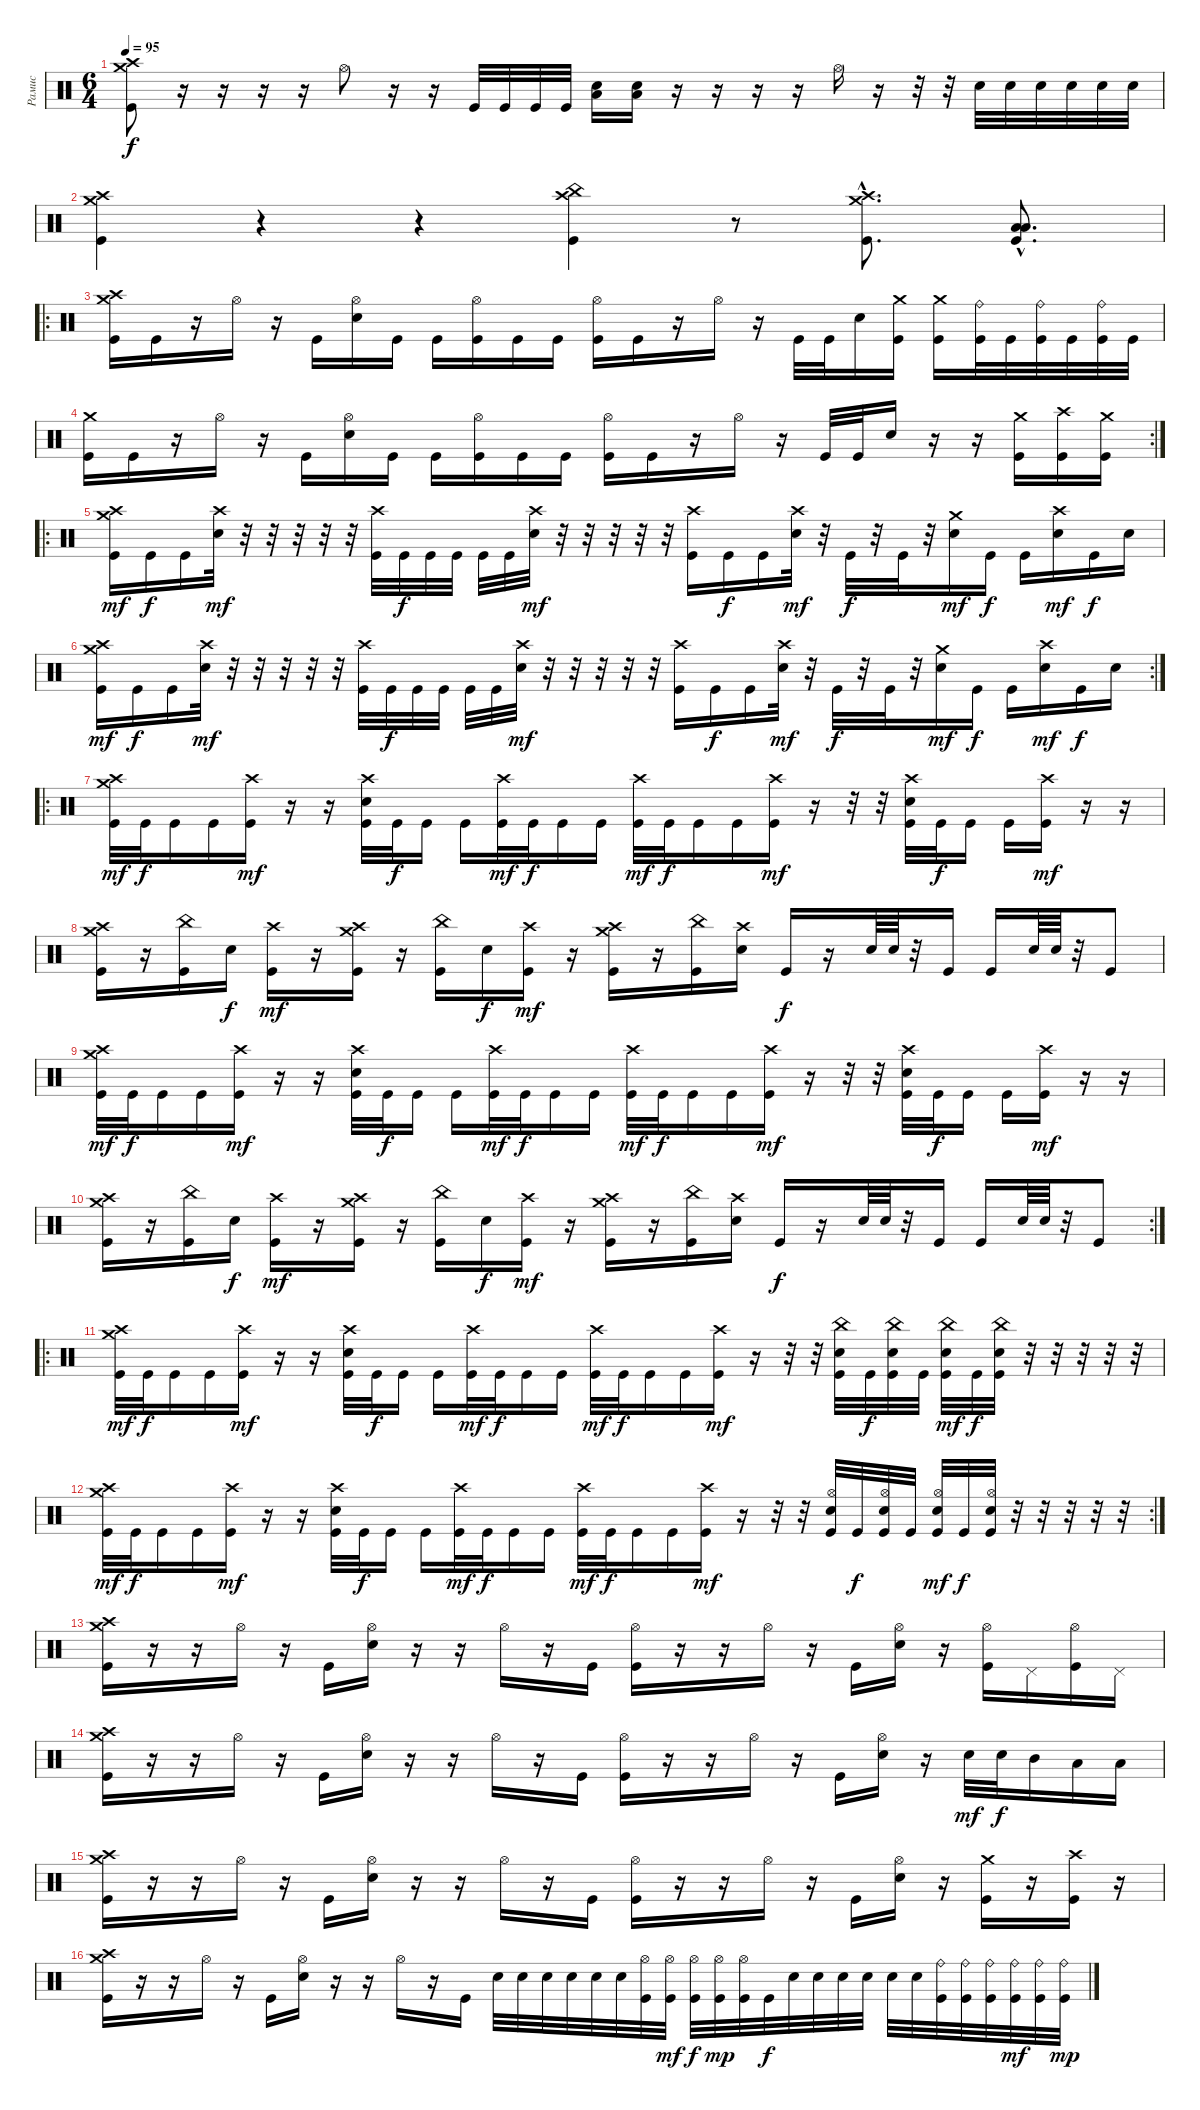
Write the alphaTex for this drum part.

\track ("Рамис" "Рамис") {instrument percussion}
\staff {score}
\articulation defaults
\ts (6 4)
\tempo 95
\clef neutral
\ks c
("Crash medium (hit)" "Crash high (hit)" "Kick (hit)").8{dy f} r.16 r.16 r.16 r.16 "Hi-Hat (open)".8 r.16 r.16 "Kick (hit)".32 "Kick (hit)".32 "Kick (hit)".32 "Kick (hit)".32 ("Electric Snare (hit)" "Low Floor Tom (hit)").16 ("Electric Snare (hit)" "Low Floor Tom (hit)").16 r.16 r.16 r.16 r.16 "Hi-Hat (open)".16 r.16 r.32 r.32 "Electric Snare (hit)".32 "Electric Snare (hit)".32 "Electric Snare (hit)".32 "Electric Snare (hit)".32 "Electric Snare (hit)".32 "Electric Snare (hit)".32 |
("Crash medium (hit)" "Crash high (hit)" "Kick (hit)").4 r.4 r.4 ("China (hit)" "Crash high (hit)" "Kick (hit)").4 r.8 ("Crash high (hit)"{hac} "Crash medium (hit)"{hac} "Kick (hit)"{hac}).8{d} ("Low Tom (hit)"{hac} "Low Floor Tom (hit)"{hac} "Kick (hit)"{hac}).8{d} |
\ro
("Crash high (hit)" "Crash medium (hit)" "Kick (hit)").16 "Kick (hit)".16 r.16 "Hi-Hat (open)".16 r.16 "Kick (hit)".16 ("Hi-Hat (open)" "Electric Snare (hit)").16 "Kick (hit)".16 "Kick (hit)".16 ("Hi-Hat (open)" "Kick (hit)").16 "Kick (hit)".16 "Kick (hit)".16 ("Hi-Hat (open)" "Kick (hit)").16 "Kick (hit)".16 r.16 "Hi-Hat (open)".16 r.16 "Kick (hit)".32 "Kick (hit)".32 "Electric Snare (hit)".16 ("Crash medium (hit)" "Kick (hit)").16 ("Crash medium (hit)" "Kick (hit)").16 ("Ride (bell)" "Kick (hit)").32 "Kick (hit)".32 ("Ride (bell)" "Kick (hit)").32 "Kick (hit)".32 ("Ride (bell)" "Kick (hit)").32 "Kick (hit)".32 |
\rc 2
("Crash medium (hit)" "Kick (hit)").16 "Kick (hit)".16 r.16 "Hi-Hat (open)".16 r.16 "Kick (hit)".16 ("Hi-Hat (open)" "Electric Snare (hit)").16 "Kick (hit)".16 "Kick (hit)".16 ("Hi-Hat (open)" "Kick (hit)").16 "Kick (hit)".16 "Kick (hit)".16 ("Hi-Hat (open)" "Kick (hit)").16 "Kick (hit)".16 r.16 "Hi-Hat (open)".16 r.16 "Kick (hit)".32 "Kick (hit)".32 "Electric Snare (hit)".16 r.16 r.16 ("Crash medium (hit)" "Kick (hit)").16 ("Crash high (hit)" "Kick (hit)").16 ("Crash medium (hit)" "Kick (hit)").16 |
\ro
("Crash high (hit)" "Crash medium (hit)" "Kick (hit)").16{dy mf} "Kick (hit)".16{dy f} "Kick (hit)".16 ("Crash high (hit)" "Electric Snare (hit)").32{dy mf} r.32 r.32 r.32 r.32 r.32 ("Crash high (hit)" "Kick (hit)").32 "Kick (hit)".32{dy f} "Kick (hit)".32 "Kick (hit)".32 "Kick (hit)".32 "Kick (hit)".32 ("Crash high (hit)" "Electric Snare (hit)").32{dy mf} r.32 r.32 r.32 r.32 r.32 ("Crash high (hit)" "Kick (hit)").16 "Kick (hit)".16{dy f} "Kick (hit)".16 ("Crash high (hit)" "Electric Snare (hit)").32{dy mf} r.32 "Kick (hit)".32{dy f} r.32 "Kick (hit)".32 r.32 ("Crash medium (hit)" "Electric Snare (hit)").16{dy mf} "Kick (hit)".16{dy f} "Kick (hit)".16 ("Crash high (hit)" "Electric Snare (hit)").16{dy mf} "Kick (hit)".16{dy f} "Electric Snare (hit)".16 |
\rc 2
("Crash high (hit)" "Crash medium (hit)" "Kick (hit)").16{dy mf} "Kick (hit)".16{dy f} "Kick (hit)".16 ("Crash high (hit)" "Electric Snare (hit)").32{dy mf} r.32 r.32 r.32 r.32 r.32 ("Crash high (hit)" "Kick (hit)").32 "Kick (hit)".32{dy f} "Kick (hit)".32 "Kick (hit)".32 "Kick (hit)".32 "Kick (hit)".32 ("Crash high (hit)" "Electric Snare (hit)").32{dy mf} r.32 r.32 r.32 r.32 r.32 ("Crash high (hit)" "Kick (hit)").16 "Kick (hit)".16{dy f} "Kick (hit)".16 ("Crash high (hit)" "Electric Snare (hit)").32{dy mf} r.32 "Kick (hit)".32{dy f} r.32 "Kick (hit)".32 r.32 ("Crash medium (hit)" "Electric Snare (hit)").16{dy mf} "Kick (hit)".16{dy f} "Kick (hit)".16 ("Crash high (hit)" "Electric Snare (hit)").16{dy mf} "Kick (hit)".16{dy f} "Electric Snare (hit)".16 |
\ro
("Crash medium (hit)" "Crash high (hit)" "Kick (hit)").32{dy mf} "Kick (hit)".32{dy f} "Kick (hit)".16 "Kick (hit)".16 ("Crash high (hit)" "Kick (hit)").16{dy mf} r.16 r.16 ("Crash high (hit)" "Electric Snare (hit)" "Kick (hit)").32 "Kick (hit)".32{dy f} "Kick (hit)".16 "Kick (hit)".16 ("Crash high (hit)" "Kick (hit)").32{dy mf} "Kick (hit)".32{dy f} "Kick (hit)".16 "Kick (hit)".16 ("Crash high (hit)" "Kick (hit)").32{dy mf} "Kick (hit)".32{dy f} "Kick (hit)".16 "Kick (hit)".16 ("Crash high (hit)" "Kick (hit)").16{dy mf} r.16 r.32 r.32 ("Crash high (hit)" "Electric Snare (hit)" "Kick (hit)").32 "Kick (hit)".32{dy f} "Kick (hit)".16 "Kick (hit)".16 ("Crash high (hit)" "Kick (hit)").16{dy mf} r.16 r.16 |
("Crash high (hit)" "Crash medium (hit)" "Kick (hit)").16 r.16 ("China (hit)" "Kick (hit)").16 "Electric Snare (hit)".16{dy f} ("Crash high (hit)" "Kick (hit)").16{dy mf} r.16 ("Crash high (hit)" "Crash medium (hit)" "Kick (hit)").16 r.16 ("China (hit)" "Kick (hit)").16 "Electric Snare (hit)".16{dy f} ("Crash high (hit)" "Kick (hit)").16{dy mf} r.16 ("Crash high (hit)" "Crash medium (hit)" "Kick (hit)").16 r.16 ("China (hit)" "Kick (hit)").16 ("Crash high (hit)" "Electric Snare (hit)").16 "Kick (hit)".16{dy f} r.16 "Electric Snare (hit)".64 "Electric Snare (hit)".64 r.32 "Kick (hit)".16 "Kick (hit)".16 "Electric Snare (hit)".64 "Electric Snare (hit)".64 r.32 "Kick (hit)".8 |
("Crash medium (hit)" "Crash high (hit)" "Kick (hit)").32{dy mf} "Kick (hit)".32{dy f} "Kick (hit)".16 "Kick (hit)".16 ("Crash high (hit)" "Kick (hit)").16{dy mf} r.16 r.16 ("Crash high (hit)" "Electric Snare (hit)" "Kick (hit)").32 "Kick (hit)".32{dy f} "Kick (hit)".16 "Kick (hit)".16 ("Crash high (hit)" "Kick (hit)").32{dy mf} "Kick (hit)".32{dy f} "Kick (hit)".16 "Kick (hit)".16 ("Crash high (hit)" "Kick (hit)").32{dy mf} "Kick (hit)".32{dy f} "Kick (hit)".16 "Kick (hit)".16 ("Crash high (hit)" "Kick (hit)").16{dy mf} r.16 r.32 r.32 ("Crash high (hit)" "Electric Snare (hit)" "Kick (hit)").32 "Kick (hit)".32{dy f} "Kick (hit)".16 "Kick (hit)".16 ("Crash high (hit)" "Kick (hit)").16{dy mf} r.16 r.16 |
\rc 2
("Crash high (hit)" "Crash medium (hit)" "Kick (hit)").16 r.16 ("China (hit)" "Kick (hit)").16 "Electric Snare (hit)".16{dy f} ("Crash high (hit)" "Kick (hit)").16{dy mf} r.16 ("Crash high (hit)" "Crash medium (hit)" "Kick (hit)").16 r.16 ("China (hit)" "Kick (hit)").16 "Electric Snare (hit)".16{dy f} ("Crash high (hit)" "Kick (hit)").16{dy mf} r.16 ("Crash high (hit)" "Crash medium (hit)" "Kick (hit)").16 r.16 ("China (hit)" "Kick (hit)").16 ("Crash high (hit)" "Electric Snare (hit)").16 "Kick (hit)".16{dy f} r.16 "Electric Snare (hit)".64 "Electric Snare (hit)".64 r.32 "Kick (hit)".16 "Kick (hit)".16 "Electric Snare (hit)".64 "Electric Snare (hit)".64 r.32 "Kick (hit)".8 |
\ro
("Crash medium (hit)" "Crash high (hit)" "Kick (hit)").32{dy mf} "Kick (hit)".32{dy f} "Kick (hit)".16 "Kick (hit)".16 ("Crash high (hit)" "Kick (hit)").16{dy mf} r.16 r.16 ("Crash high (hit)" "Electric Snare (hit)" "Kick (hit)").32 "Kick (hit)".32{dy f} "Kick (hit)".16 "Kick (hit)".16 ("Crash high (hit)" "Kick (hit)").32{dy mf} "Kick (hit)".32{dy f} "Kick (hit)".16 "Kick (hit)".16 ("Crash high (hit)" "Kick (hit)").32{dy mf} "Kick (hit)".32{dy f} "Kick (hit)".16 "Kick (hit)".16 ("Crash high (hit)" "Kick (hit)").16{dy mf} r.16 r.32 r.32 ("China (hit)" "Electric Snare (hit)" "Kick (hit)").32 "Kick (hit)".32{dy f} ("China (hit)" "Electric Snare (hit)" "Kick (hit)").32 "Kick (hit)".32 ("China (hit)" "Electric Snare (hit)" "Kick (hit)").32{dy mf} "Kick (hit)".32{dy f} ("China (hit)" "Electric Snare (hit)" "Kick (hit)").32 r.32 r.32 r.32 r.32 r.32 |
\rc 2
("Crash medium (hit)" "Crash high (hit)" "Kick (hit)").32{dy mf} "Kick (hit)".32{dy f} "Kick (hit)".16 "Kick (hit)".16 ("Crash high (hit)" "Kick (hit)").16{dy mf} r.16 r.16 ("Crash high (hit)" "Electric Snare (hit)" "Kick (hit)").32 "Kick (hit)".32{dy f} "Kick (hit)".16 "Kick (hit)".16 ("Crash high (hit)" "Kick (hit)").32{dy mf} "Kick (hit)".32{dy f} "Kick (hit)".16 "Kick (hit)".16 ("Crash high (hit)" "Kick (hit)").32{dy mf} "Kick (hit)".32{dy f} "Kick (hit)".16 "Kick (hit)".16 ("Crash high (hit)" "Kick (hit)").16{dy mf} r.16 r.32 r.32 ("Hi-Hat (open)" "Electric Snare (hit)" "Kick (hit)").32 "Kick (hit)".32{dy f} ("Hi-Hat (open)" "Electric Snare (hit)" "Kick (hit)").32 "Kick (hit)".32 ("Hi-Hat (open)" "Electric Snare (hit)" "Kick (hit)").32{dy mf} "Kick (hit)".32{dy f} ("Hi-Hat (open)" "Electric Snare (hit)" "Kick (hit)").32 r.32 r.32 r.32 r.32 r.32 |
("Crash medium (hit)" "Crash high (hit)" "Kick (hit)").16 r.16 r.16 "Hi-Hat (open)".16 r.16 "Kick (hit)".16 ("Hi-Hat (open)" "Electric Snare (hit)").16 r.16 r.16 "Hi-Hat (open)".16 r.16 "Kick (hit)".16 ("Hi-Hat (open)" "Kick (hit)").16 r.16 r.16 "Hi-Hat (open)".16 r.16 "Kick (hit)".16 ("Hi-Hat (open)" "Electric Snare (hit)").16 r.16 ("Hi-Hat (open)" "Kick (hit)").16 "Pedal Hi-Hat (hit)".16 ("Hi-Hat (open)" "Kick (hit)").16 "Pedal Hi-Hat (hit)".16 |
("Crash high (hit)" "Crash medium (hit)" "Kick (hit)").16 r.16 r.16 "Hi-Hat (open)".16 r.16 "Kick (hit)".16 ("Hi-Hat (open)" "Electric Snare (hit)").16 r.16 r.16 "Hi-Hat (open)".16 r.16 "Kick (hit)".16 ("Hi-Hat (open)" "Kick (hit)").16 r.16 r.16 "Hi-Hat (open)".16 r.16 "Kick (hit)".16 ("Hi-Hat (open)" "Electric Snare (hit)").16 r.16 "Electric Snare (hit)".32{dy mf} "Electric Snare (hit)".32{dy f} "Mid Tom (hit)".16 "Low Tom (hit)".16 "Low Tom (hit)".16 |
("Crash medium (hit)" "Crash high (hit)" "Kick (hit)").16 r.16 r.16 "Hi-Hat (open)".16 r.16 "Kick (hit)".16 ("Hi-Hat (open)" "Electric Snare (hit)").16 r.16 r.16 "Hi-Hat (open)".16 r.16 "Kick (hit)".16 ("Hi-Hat (open)" "Kick (hit)").16 r.16 r.16 "Hi-Hat (open)".16 r.16 "Kick (hit)".16 ("Hi-Hat (open)" "Electric Snare (hit)").16 r.16 ("Crash medium (hit)" "Kick (hit)").16 r.16 ("Crash high (hit)" "Kick (hit)").16 r.16 |
("Crash high (hit)" "Crash medium (hit)" "Kick (hit)").16 r.16 r.16 "Hi-Hat (open)".16 r.16 "Kick (hit)".16 ("Hi-Hat (open)" "Electric Snare (hit)").16 r.16 r.16 "Hi-Hat (open)".16 r.16 "Kick (hit)".16 "Electric Snare (hit)".32 "Electric Snare (hit)".32 "Electric Snare (hit)".32 "Electric Snare (hit)".32 "Electric Snare (hit)".32 "Electric Snare (hit)".32 ("Hi-Hat (open)" "Kick (hit)").32 ("Hi-Hat (open)" "Kick (hit)").32{dy mf} ("Hi-Hat (open)" "Kick (hit)").32{dy f} ("Hi-Hat (open)" "Kick (hit)").32{dy mp} ("Hi-Hat (open)" "Kick (hit)").32 "Kick (hit)".32{dy f} "Electric Snare (hit)".32 "Electric Snare (hit)".32 "Electric Snare (hit)".32 "Electric Snare (hit)".32 "Electric Snare (hit)".32 "Electric Snare (hit)".32 ("Ride (bell)" "Kick (hit)").32 ("Ride (bell)" "Kick (hit)").32 ("Ride (bell)" "Kick (hit)").32 ("Ride (bell)" "Kick (hit)").32{dy mf} ("Ride (bell)" "Kick (hit)").32 ("Ride (bell)" "Kick (hit)").32{dy mp}
